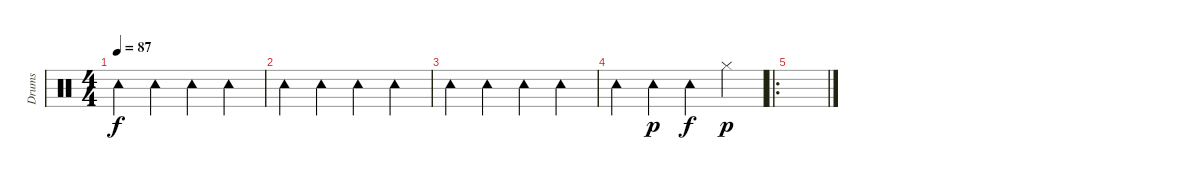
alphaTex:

\track ("Drums" "Drums") {instrument percussion}
\staff {score}
\articulation defaults
\ts (4 4)
\tempo 87
\clef neutral
\ks c "Tambourine (hit)".4{dy f} "Tambourine (hit)".4 "Tambourine (hit)".4 "Tambourine (hit)".4
|
"Tambourine (hit)".4 "Tambourine (hit)".4 "Tambourine (hit)".4 "Tambourine (hit)".4 |
"Tambourine (hit)".4 "Tambourine (hit)".4 "Tambourine (hit)".4 "Tambourine (hit)".4 |
"Tambourine (hit)".4 "Tambourine (hit)".4{dy p} "Tambourine (hit)".4{dy f} "Hi-Hat (closed)".4{dy p} |
\ro
